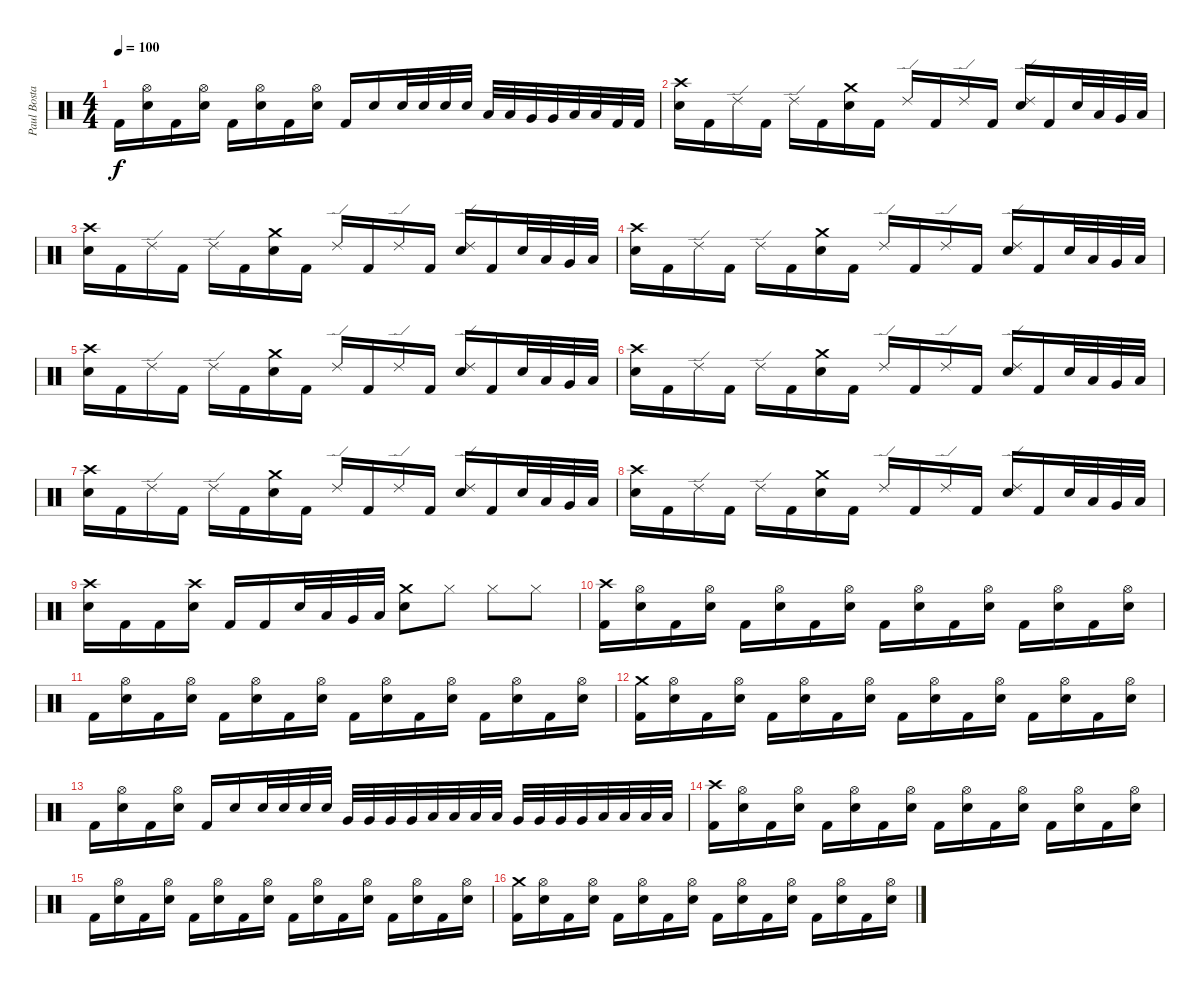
\track ("Paul Bostaph" "Paul Bosta") {instrument percussion}
\staff {score}
\articulation defaults
\ts (4 4)
\tempo 100
\clef neutral
\ks c "Kick (hit) 2".16{dy f}
("Hi-Hat (open)" "Snare (hit) 2").16 "Kick (hit) 2".16 ("Hi-Hat (open)" "Snare (hit) 2").16 "Kick (hit) 2".16 ("Hi-Hat (open)" "Snare (hit) 2").16 "Kick (hit) 2".16 ("Hi-Hat (open)" "Snare (hit) 2").16 "Kick (hit) 2".16 "Snare (hit) 2".16 "Snare (hit) 2".32 "Snare (hit) 2".32 "Snare (hit) 2".32 "Snare (hit) 2".32 "Low Tom (hit)".32 "Low Tom (hit)".32 "Very Low Tom (hit)".32 "Very Low Tom (hit)".32 "Low Floor Tom (hit)".32 "Low Floor Tom (hit)".32 "Kick (hit) 2".32 "Kick (hit) 2".32 |
("Crash high (hit)" "Snare (hit) 2").16 "Kick (hit) 2".16 "Ride (edge) 2".16 "Kick (hit) 2".16 "Ride (edge) 2".16 "Kick (hit) 2".16 ("Crash medium (hit)" "Snare (hit) 2").16 "Kick (hit) 2".16 "Ride (edge) 2".16 "Kick (hit) 2".16 "Ride (edge) 2".16 "Kick (hit) 2".16 ("Ride (edge) 2" "Snare (hit) 2").16 "Kick (hit) 2".16 "Snare (hit) 2".32 "Low Tom (hit)".32 "Very Low Tom (hit)".32 "Low Floor Tom (hit)".32 |
("Crash high (hit)" "Snare (hit) 2").16 "Kick (hit) 2".16 "Ride (edge) 2".16 "Kick (hit) 2".16 "Ride (edge) 2".16 "Kick (hit) 2".16 ("Crash medium (hit)" "Snare (hit) 2").16 "Kick (hit) 2".16 "Ride (edge) 2".16 "Kick (hit) 2".16 "Ride (edge) 2".16 "Kick (hit) 2".16 ("Ride (edge) 2" "Snare (hit) 2").16 "Kick (hit) 2".16 "Snare (hit) 2".32 "Low Tom (hit)".32 "Very Low Tom (hit)".32 "Low Floor Tom (hit)".32 |
("Crash high (hit)" "Snare (hit) 2").16 "Kick (hit) 2".16 "Ride (edge) 2".16 "Kick (hit) 2".16 "Ride (edge) 2".16 "Kick (hit) 2".16 ("Crash medium (hit)" "Snare (hit) 2").16 "Kick (hit) 2".16 "Ride (edge) 2".16 "Kick (hit) 2".16 "Ride (edge) 2".16 "Kick (hit) 2".16 ("Ride (edge) 2" "Snare (hit) 2").16 "Kick (hit) 2".16 "Snare (hit) 2".32 "Low Tom (hit)".32 "Very Low Tom (hit)".32 "Low Floor Tom (hit)".32 |
("Crash high (hit)" "Snare (hit) 2").16 "Kick (hit) 2".16 "Ride (edge) 2".16 "Kick (hit) 2".16 "Ride (edge) 2".16 "Kick (hit) 2".16 ("Crash medium (hit)" "Snare (hit) 2").16 "Kick (hit) 2".16 "Ride (edge) 2".16 "Kick (hit) 2".16 "Ride (edge) 2".16 "Kick (hit) 2".16 ("Ride (edge) 2" "Snare (hit) 2").16 "Kick (hit) 2".16 "Snare (hit) 2".32 "Low Tom (hit)".32 "Very Low Tom (hit)".32 "Low Floor Tom (hit)".32 |
("Crash high (hit)" "Snare (hit) 2").16 "Kick (hit) 2".16 "Ride (edge) 2".16 "Kick (hit) 2".16 "Ride (edge) 2".16 "Kick (hit) 2".16 ("Crash medium (hit)" "Snare (hit) 2").16 "Kick (hit) 2".16 "Ride (edge) 2".16 "Kick (hit) 2".16 "Ride (edge) 2".16 "Kick (hit) 2".16 ("Ride (edge) 2" "Snare (hit) 2").16 "Kick (hit) 2".16 "Snare (hit) 2".32 "Low Tom (hit)".32 "Very Low Tom (hit)".32 "Low Floor Tom (hit)".32 |
("Crash high (hit)" "Snare (hit) 2").16 "Kick (hit) 2".16 "Ride (edge) 2".16 "Kick (hit) 2".16 "Ride (edge) 2".16 "Kick (hit) 2".16 ("Crash medium (hit)" "Snare (hit) 2").16 "Kick (hit) 2".16 "Ride (edge) 2".16 "Kick (hit) 2".16 "Ride (edge) 2".16 "Kick (hit) 2".16 ("Ride (edge) 2" "Snare (hit) 2").16 "Kick (hit) 2".16 "Snare (hit) 2".32 "Low Tom (hit)".32 "Very Low Tom (hit)".32 "Low Floor Tom (hit)".32 |
("Crash high (hit)" "Snare (hit) 2").16 "Kick (hit) 2".16 "Ride (edge) 2".16 "Kick (hit) 2".16 "Ride (edge) 2".16 "Kick (hit) 2".16 ("Crash medium (hit)" "Snare (hit) 2").16 "Kick (hit) 2".16 "Ride (edge) 2".16 "Kick (hit) 2".16 "Ride (edge) 2".16 "Kick (hit) 2".16 ("Ride (edge) 2" "Snare (hit) 2").16 "Kick (hit) 2".16 "Snare (hit) 2".32 "Low Tom (hit)".32 "Very Low Tom (hit)".32 "Low Floor Tom (hit)".32 |
("Crash high (hit)" "Snare (hit) 2").16 "Kick (hit) 2".16 "Kick (hit) 2".16 ("Crash high (hit)" "Snare (hit) 2").16 "Kick (hit) 2".16 "Kick (hit) 2".16 "Snare (hit) 2".32 "Low Tom (hit)".32 "Very Low Tom (hit)".32 "Low Floor Tom (hit)".32 ("Crash medium (hit)" "Snare (hit) 2").8 "Hi-Hat (closed)".8 "Hi-Hat (closed)".8 "Hi-Hat (closed)".8 |
("Crash high (hit)" "Kick (hit) 2").16 ("Hi-Hat (open)" "Snare (hit) 2").16 "Kick (hit) 2".16 ("Hi-Hat (open)" "Snare (hit) 2").16 "Kick (hit) 2".16 ("Hi-Hat (open)" "Snare (hit) 2").16 "Kick (hit) 2".16 ("Hi-Hat (open)" "Snare (hit) 2").16 "Kick (hit) 2".16 ("Hi-Hat (open)" "Snare (hit) 2").16 "Kick (hit) 2".16 ("Hi-Hat (open)" "Snare (hit) 2").16 "Kick (hit) 2".16 ("Hi-Hat (open)" "Snare (hit) 2").16 "Kick (hit) 2".16 ("Hi-Hat (open)" "Snare (hit) 2").16 |
"Kick (hit) 2".16 ("Hi-Hat (open)" "Snare (hit) 2").16 "Kick (hit) 2".16 ("Hi-Hat (open)" "Snare (hit) 2").16 "Kick (hit) 2".16 ("Hi-Hat (open)" "Snare (hit) 2").16 "Kick (hit) 2".16 ("Hi-Hat (open)" "Snare (hit) 2").16 "Kick (hit) 2".16 ("Hi-Hat (open)" "Snare (hit) 2").16 "Kick (hit) 2".16 ("Hi-Hat (open)" "Snare (hit) 2").16 "Kick (hit) 2".16 ("Hi-Hat (open)" "Snare (hit) 2").16 "Kick (hit) 2".16 ("Hi-Hat (open)" "Snare (hit) 2").16 |
("Crash medium (hit)" "Kick (hit) 2").16 ("Hi-Hat (open)" "Snare (hit) 2").16 "Kick (hit) 2".16 ("Hi-Hat (open)" "Snare (hit) 2").16 "Kick (hit) 2".16 ("Hi-Hat (open)" "Snare (hit) 2").16 "Kick (hit) 2".16 ("Hi-Hat (open)" "Snare (hit) 2").16 "Kick (hit) 2".16 ("Hi-Hat (open)" "Snare (hit) 2").16 "Kick (hit) 2".16 ("Hi-Hat (open)" "Snare (hit) 2").16 "Kick (hit) 2".16 ("Hi-Hat (open)" "Snare (hit) 2").16 "Kick (hit) 2".16 ("Hi-Hat (open)" "Snare (hit) 2").16 |
"Kick (hit) 2".16 ("Hi-Hat (open)" "Snare (hit) 2").16 "Kick (hit) 2".16 ("Hi-Hat (open)" "Snare (hit) 2").16 "Kick (hit) 2".16 "Snare (hit) 2".16 "Snare (hit) 2".32 "Snare (hit) 2".32 "Snare (hit) 2".32 "Snare (hit) 2".32 "Very Low Tom (hit)".32 "Very Low Tom (hit)".32 "Very Low Tom (hit)".32 "Very Low Tom (hit)".32 "Low Tom (hit)".32 "Low Tom (hit)".32 "Low Tom (hit)".32 "Low Tom (hit)".32 "Very Low Tom (hit)".32 "Very Low Tom (hit)".32 "Very Low Tom (hit)".32 "Very Low Tom (hit)".32 "Low Floor Tom (hit)".32 "Low Floor Tom (hit)".32 "Low Floor Tom (hit)".32 "Low Floor Tom (hit)".32 |
("Crash high (hit)" "Kick (hit) 2").16 ("Hi-Hat (open)" "Snare (hit) 2").16 "Kick (hit) 2".16 ("Hi-Hat (open)" "Snare (hit) 2").16 "Kick (hit) 2".16 ("Hi-Hat (open)" "Snare (hit) 2").16 "Kick (hit) 2".16 ("Hi-Hat (open)" "Snare (hit) 2").16 "Kick (hit) 2".16 ("Hi-Hat (open)" "Snare (hit) 2").16 "Kick (hit) 2".16 ("Hi-Hat (open)" "Snare (hit) 2").16 "Kick (hit) 2".16 ("Hi-Hat (open)" "Snare (hit) 2").16 "Kick (hit) 2".16 ("Hi-Hat (open)" "Snare (hit) 2").16 |
"Kick (hit) 2".16 ("Hi-Hat (open)" "Snare (hit) 2").16 "Kick (hit) 2".16 ("Hi-Hat (open)" "Snare (hit) 2").16 "Kick (hit) 2".16 ("Hi-Hat (open)" "Snare (hit) 2").16 "Kick (hit) 2".16 ("Hi-Hat (open)" "Snare (hit) 2").16 "Kick (hit) 2".16 ("Hi-Hat (open)" "Snare (hit) 2").16 "Kick (hit) 2".16 ("Hi-Hat (open)" "Snare (hit) 2").16 "Kick (hit) 2".16 ("Hi-Hat (open)" "Snare (hit) 2").16 "Kick (hit) 2".16 ("Hi-Hat (open)" "Snare (hit) 2").16 |
("Crash medium (hit)" "Kick (hit) 2").16 ("Hi-Hat (open)" "Snare (hit) 2").16 "Kick (hit) 2".16 ("Hi-Hat (open)" "Snare (hit) 2").16 "Kick (hit) 2".16 ("Hi-Hat (open)" "Snare (hit) 2").16 "Kick (hit) 2".16 ("Hi-Hat (open)" "Snare (hit) 2").16 "Kick (hit) 2".16 ("Hi-Hat (open)" "Snare (hit) 2").16 "Kick (hit) 2".16 ("Hi-Hat (open)" "Snare (hit) 2").16 "Kick (hit) 2".16 ("Hi-Hat (open)" "Snare (hit) 2").16 "Kick (hit) 2".16 ("Hi-Hat (open)" "Snare (hit) 2").16
